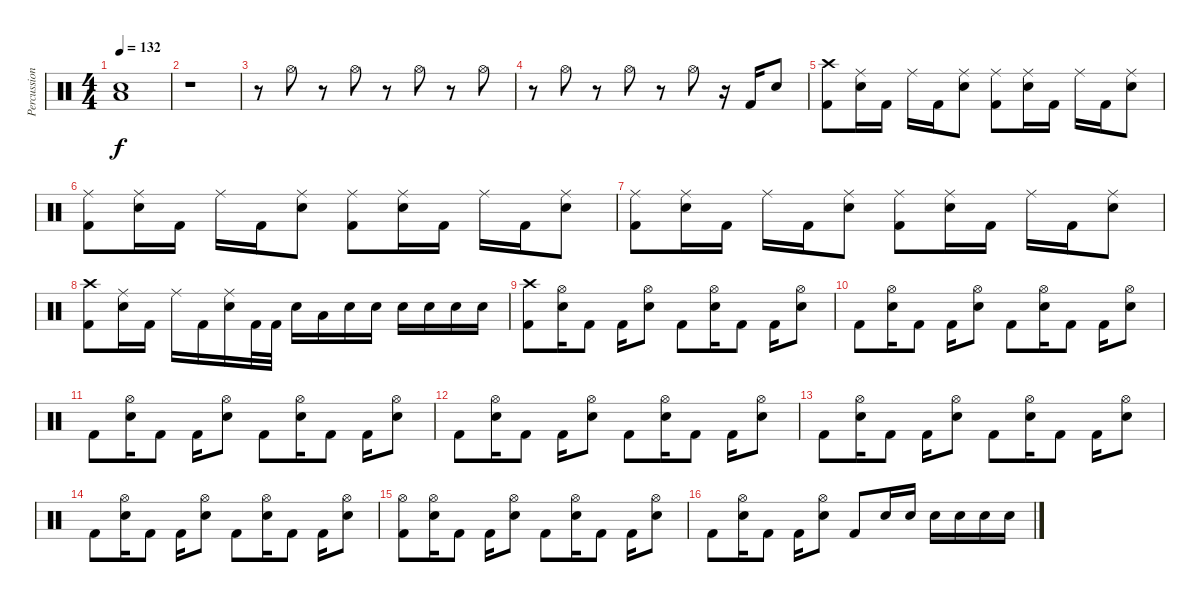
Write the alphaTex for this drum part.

\track ("Percussion" "Percussion") {instrument percussion}
\staff {score}
\articulation defaults
\ts (4 4)
\tempo 132
\clef neutral
\ks c
("Low Floor Tom (hit)" "Snare (hit) 2").1{dy f} |
r.1 |
r.8 "Hi-Hat (open)".8 r.8 "Hi-Hat (open)".8 r.8 "Hi-Hat (open)".8 r.8 "Hi-Hat (open)".8 |
r.8 "Hi-Hat (open)".8 r.8 "Hi-Hat (open)".8 r.8 "Hi-Hat (open)".8 r.16 "Kick (hit) 2".16 "Snare (hit) 2".8 |
("Crash high (hit)" "Kick (hit) 2").8 ("Ride (middle)" "Snare (hit) 2").16 "Kick (hit) 2".16 "Ride (middle)".16 "Kick (hit) 2".16 ("Ride (middle)" "Snare (hit) 2").8 ("Ride (middle)" "Kick (hit) 2").8 ("Ride (middle)" "Snare (hit) 2").16 "Kick (hit) 2".16 "Ride (middle)".16 "Kick (hit) 2".16 ("Ride (middle)" "Snare (hit) 2").8 |
("Ride (middle)" "Kick (hit) 2").8 ("Ride (middle)" "Snare (hit) 2").16 "Kick (hit) 2".16 "Ride (middle)".16 "Kick (hit) 2".16 ("Ride (middle)" "Snare (hit) 2").8 ("Ride (middle)" "Kick (hit) 2").8 ("Ride (middle)" "Snare (hit) 2").16 "Kick (hit) 2".16 "Ride (middle)".16 "Kick (hit) 2".16 ("Ride (middle)" "Snare (hit) 2").8 |
("Ride (middle)" "Kick (hit) 2").8 ("Ride (middle)" "Snare (hit) 2").16 "Kick (hit) 2".16 "Ride (middle)".16 "Kick (hit) 2".16 ("Ride (middle)" "Snare (hit) 2").8 ("Ride (middle)" "Kick (hit) 2").8 ("Ride (middle)" "Snare (hit) 2").16 "Kick (hit) 2".16 "Ride (middle)".16 "Kick (hit) 2".16 ("Ride (middle)" "Snare (hit) 2").8 |
("Crash high (hit)" "Kick (hit) 2").8 ("Ride (middle)" "Snare (hit) 2").16 "Kick (hit) 2".16 "Ride (middle)".16 "Kick (hit) 2".16 ("Ride (middle)" "Snare (hit) 2").16 "Kick (hit) 2".32 "Kick (hit) 2".32 "Snare (hit) 2".16 "Low Tom (hit)".16 "Snare (hit) 2".16 "Snare (hit) 2".16 "Snare (hit) 2".16 "Snare (hit) 2".16 "Snare (hit) 2".16 "Snare (hit) 2".16 |
("Crash high (hit)" "Kick (hit) 2").8 ("Hi-Hat (open)" "Snare (hit) 2").16 "Kick (hit) 2".8 "Kick (hit) 2".16 ("Hi-Hat (open)" "Snare (hit) 2").8 "Kick (hit) 2".8 ("Hi-Hat (open)" "Snare (hit) 2").16 "Kick (hit) 2".8 "Kick (hit) 2".16 ("Hi-Hat (open)" "Snare (hit) 2").8 |
"Kick (hit) 2".8 ("Hi-Hat (open)" "Snare (hit) 2").16 "Kick (hit) 2".8 "Kick (hit) 2".16 ("Hi-Hat (open)" "Snare (hit) 2").8 "Kick (hit) 2".8 ("Hi-Hat (open)" "Snare (hit) 2").16 "Kick (hit) 2".8 "Kick (hit) 2".16 ("Hi-Hat (open)" "Snare (hit) 2").8 |
"Kick (hit) 2".8 ("Hi-Hat (open)" "Snare (hit) 2").16 "Kick (hit) 2".8 "Kick (hit) 2".16 ("Hi-Hat (open)" "Snare (hit) 2").8 "Kick (hit) 2".8 ("Hi-Hat (open)" "Snare (hit) 2").16 "Kick (hit) 2".8 "Kick (hit) 2".16 ("Hi-Hat (open)" "Snare (hit) 2").8 |
"Kick (hit) 2".8 ("Hi-Hat (open)" "Snare (hit) 2").16 "Kick (hit) 2".8 "Kick (hit) 2".16 ("Hi-Hat (open)" "Snare (hit) 2").8 "Kick (hit) 2".8 ("Hi-Hat (open)" "Snare (hit) 2").16 "Kick (hit) 2".8 "Kick (hit) 2".16 ("Hi-Hat (open)" "Snare (hit) 2").8 |
"Kick (hit) 2".8 ("Hi-Hat (open)" "Snare (hit) 2").16 "Kick (hit) 2".8 "Kick (hit) 2".16 ("Hi-Hat (open)" "Snare (hit) 2").8 "Kick (hit) 2".8 ("Hi-Hat (open)" "Snare (hit) 2").16 "Kick (hit) 2".8 "Kick (hit) 2".16 ("Hi-Hat (open)" "Snare (hit) 2").8 |
"Kick (hit) 2".8 ("Hi-Hat (open)" "Snare (hit) 2").16 "Kick (hit) 2".8 "Kick (hit) 2".16 ("Hi-Hat (open)" "Snare (hit) 2").8 "Kick (hit) 2".8 ("Hi-Hat (open)" "Snare (hit) 2").16 "Kick (hit) 2".8 "Kick (hit) 2".16 ("Hi-Hat (open)" "Snare (hit) 2").8 |
("Hi-Hat (open)" "Kick (hit) 2").8 ("Hi-Hat (open)" "Snare (hit) 2").16 "Kick (hit) 2".8 "Kick (hit) 2".16 ("Hi-Hat (open)" "Snare (hit) 2").8 "Kick (hit) 2".8 ("Hi-Hat (open)" "Snare (hit) 2").16 "Kick (hit) 2".8 "Kick (hit) 2".16 ("Hi-Hat (open)" "Snare (hit) 2").8 |
"Kick (hit) 2".8 ("Hi-Hat (open)" "Snare (hit) 2").16 "Kick (hit) 2".8 "Kick (hit) 2".16 ("Hi-Hat (open)" "Snare (hit) 2").8 "Kick (hit) 2".8 "Snare (hit) 2".16 "Snare (hit) 2".16 "Snare (hit) 2".16 "Snare (hit) 2".16 "Snare (hit) 2".16 "Snare (hit) 2".16
